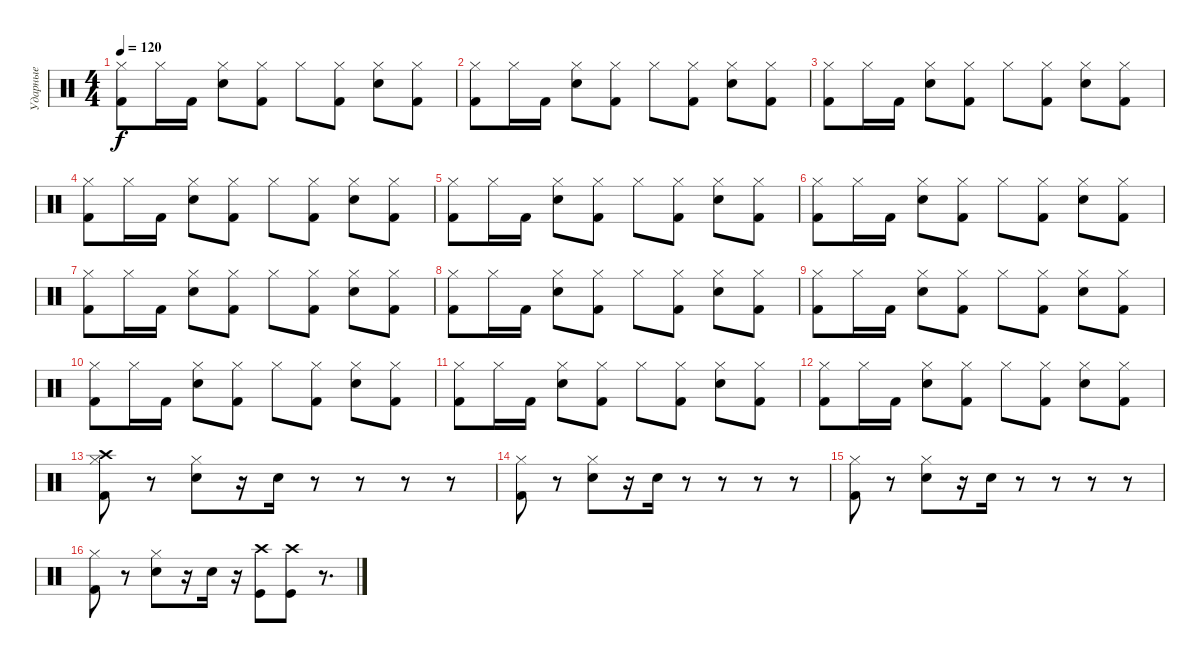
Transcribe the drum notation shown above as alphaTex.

\track ("Ударные" "Ударные") {instrument percussion}
\staff {score}
\articulation defaults
\ts (4 4)
\tempo 120
\clef neutral
\ks c
("Hi-Hat (closed)" "Kick (hit) 2").8{dy f} "Hi-Hat (closed)".16 "Kick (hit) 2".16 ("Hi-Hat (closed)" "Electric Snare (hit)").8 ("Hi-Hat (closed)" "Kick (hit) 2").8 "Hi-Hat (closed)".8 ("Hi-Hat (closed)" "Kick (hit) 2").8 ("Hi-Hat (closed)" "Electric Snare (hit)").8 ("Hi-Hat (closed)" "Kick (hit) 2").8 |
("Hi-Hat (closed)" "Kick (hit) 2").8 "Hi-Hat (closed)".16 "Kick (hit) 2".16 ("Hi-Hat (closed)" "Electric Snare (hit)").8 ("Hi-Hat (closed)" "Kick (hit) 2").8 "Hi-Hat (closed)".8 ("Hi-Hat (closed)" "Kick (hit) 2").8 ("Hi-Hat (closed)" "Electric Snare (hit)").8 ("Hi-Hat (closed)" "Kick (hit) 2").8 |
("Hi-Hat (closed)" "Kick (hit) 2").8 "Hi-Hat (closed)".16 "Kick (hit) 2".16 ("Hi-Hat (closed)" "Electric Snare (hit)").8 ("Hi-Hat (closed)" "Kick (hit) 2").8 "Hi-Hat (closed)".8 ("Hi-Hat (closed)" "Kick (hit) 2").8 ("Hi-Hat (closed)" "Electric Snare (hit)").8 ("Hi-Hat (closed)" "Kick (hit) 2").8 |
("Hi-Hat (closed)" "Kick (hit) 2").8 "Hi-Hat (closed)".16 "Kick (hit) 2".16 ("Hi-Hat (closed)" "Electric Snare (hit)").8 ("Hi-Hat (closed)" "Kick (hit) 2").8 "Hi-Hat (closed)".8 ("Hi-Hat (closed)" "Kick (hit) 2").8 ("Hi-Hat (closed)" "Electric Snare (hit)").8 ("Hi-Hat (closed)" "Kick (hit) 2").8 |
("Hi-Hat (closed)" "Kick (hit) 2").8 "Hi-Hat (closed)".16 "Kick (hit) 2".16 ("Hi-Hat (closed)" "Electric Snare (hit)").8 ("Hi-Hat (closed)" "Kick (hit) 2").8 "Hi-Hat (closed)".8 ("Hi-Hat (closed)" "Kick (hit) 2").8 ("Hi-Hat (closed)" "Electric Snare (hit)").8 ("Hi-Hat (closed)" "Kick (hit) 2").8 |
("Hi-Hat (closed)" "Kick (hit) 2").8 "Hi-Hat (closed)".16 "Kick (hit) 2".16 ("Hi-Hat (closed)" "Electric Snare (hit)").8 ("Hi-Hat (closed)" "Kick (hit) 2").8 "Hi-Hat (closed)".8 ("Hi-Hat (closed)" "Kick (hit) 2").8 ("Hi-Hat (closed)" "Electric Snare (hit)").8 ("Hi-Hat (closed)" "Kick (hit) 2").8 |
("Hi-Hat (closed)" "Kick (hit) 2").8 "Hi-Hat (closed)".16 "Kick (hit) 2".16 ("Hi-Hat (closed)" "Electric Snare (hit)").8 ("Hi-Hat (closed)" "Kick (hit) 2").8 "Hi-Hat (closed)".8 ("Hi-Hat (closed)" "Kick (hit) 2").8 ("Hi-Hat (closed)" "Electric Snare (hit)").8 ("Hi-Hat (closed)" "Kick (hit) 2").8 |
("Hi-Hat (closed)" "Kick (hit) 2").8 "Hi-Hat (closed)".16 "Kick (hit) 2".16 ("Hi-Hat (closed)" "Electric Snare (hit)").8 ("Hi-Hat (closed)" "Kick (hit) 2").8 "Hi-Hat (closed)".8 ("Hi-Hat (closed)" "Kick (hit) 2").8 ("Hi-Hat (closed)" "Electric Snare (hit)").8 ("Hi-Hat (closed)" "Kick (hit) 2").8 |
("Hi-Hat (closed)" "Kick (hit) 2").8 "Hi-Hat (closed)".16 "Kick (hit) 2".16 ("Hi-Hat (closed)" "Electric Snare (hit)").8 ("Hi-Hat (closed)" "Kick (hit) 2").8 "Hi-Hat (closed)".8 ("Hi-Hat (closed)" "Kick (hit) 2").8 ("Hi-Hat (closed)" "Electric Snare (hit)").8 ("Hi-Hat (closed)" "Kick (hit) 2").8 |
("Hi-Hat (closed)" "Kick (hit) 2").8 "Hi-Hat (closed)".16 "Kick (hit) 2".16 ("Hi-Hat (closed)" "Electric Snare (hit)").8 ("Hi-Hat (closed)" "Kick (hit) 2").8 "Hi-Hat (closed)".8 ("Hi-Hat (closed)" "Kick (hit) 2").8 ("Hi-Hat (closed)" "Electric Snare (hit)").8 ("Hi-Hat (closed)" "Kick (hit) 2").8 |
("Hi-Hat (closed)" "Kick (hit) 2").8 "Hi-Hat (closed)".16 "Kick (hit) 2".16 ("Hi-Hat (closed)" "Electric Snare (hit)").8 ("Hi-Hat (closed)" "Kick (hit) 2").8 "Hi-Hat (closed)".8 ("Hi-Hat (closed)" "Kick (hit) 2").8 ("Hi-Hat (closed)" "Electric Snare (hit)").8 ("Hi-Hat (closed)" "Kick (hit) 2").8 |
("Hi-Hat (closed)" "Kick (hit) 2").8 "Hi-Hat (closed)".16 "Kick (hit) 2".16 ("Hi-Hat (closed)" "Electric Snare (hit)").8 ("Hi-Hat (closed)" "Kick (hit) 2").8 "Hi-Hat (closed)".8 ("Hi-Hat (closed)" "Kick (hit) 2").8 ("Hi-Hat (closed)" "Electric Snare (hit)").8 ("Hi-Hat (closed)" "Kick (hit) 2").8 |
("Hi-Hat (closed)" "Crash high (hit)" "Kick (hit) 2").8 r.8 ("Hi-Hat (closed)" "Electric Snare (hit)").8 r.16 "Electric Snare (hit)".16 r.8 r.8 r.8 r.8 |
("Hi-Hat (closed)" "Kick (hit) 2").8 r.8 ("Hi-Hat (closed)" "Electric Snare (hit)").8 r.16 "Electric Snare (hit)".16 r.8 r.8 r.8 r.8 |
("Hi-Hat (closed)" "Kick (hit) 2").8 r.8 ("Hi-Hat (closed)" "Electric Snare (hit)").8 r.16 "Electric Snare (hit)".16 r.8 r.8 r.8 r.8 |
("Hi-Hat (closed)" "Kick (hit) 2").8 r.8 ("Hi-Hat (closed)" "Electric Snare (hit)").8 r.16 "Electric Snare (hit)".16 r.16 ("Crash high (hit)" "Kick (hit)").8 ("Crash high (hit)" "Kick (hit)").8 r.8{d}
